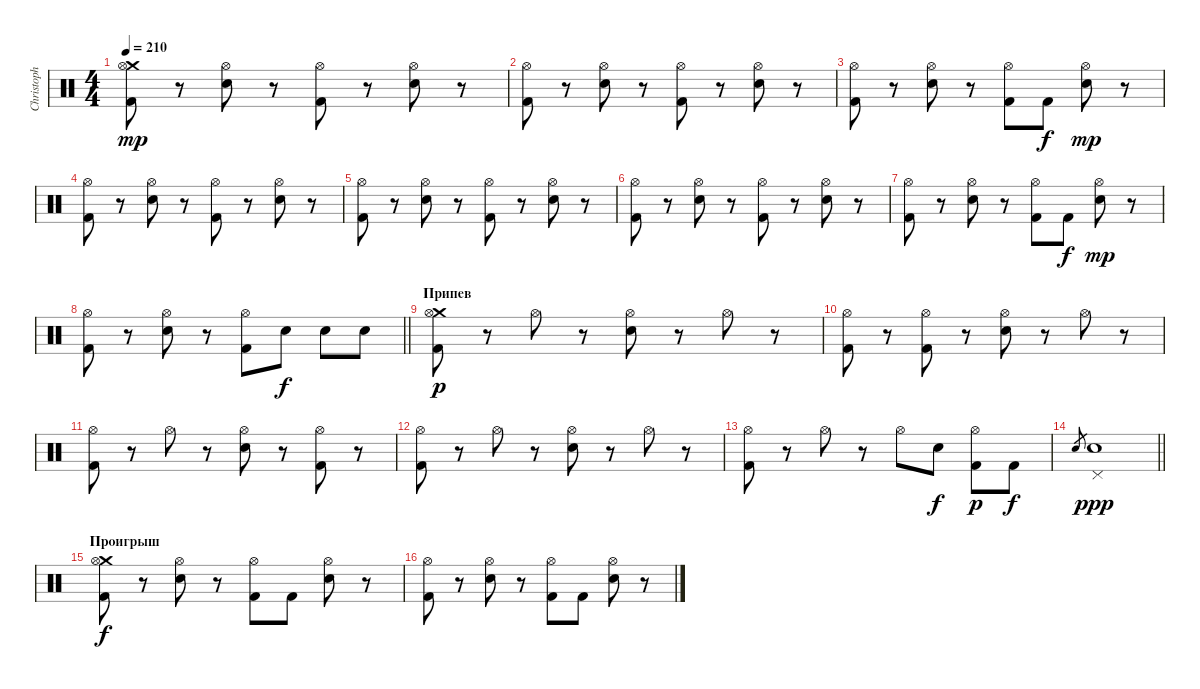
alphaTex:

\track ("Christoph Schneider" "Christoph ") {instrument percussion}
\staff {score}
\articulation defaults
\ts (4 4)
\tempo 210
\clef neutral
\ks c
("Crash medium (hit)" "Kick (hit) 2" "Hi-Hat (open)").8{dy mp} r.8 ("Hi-Hat (open)" "Electric Snare (hit)").8 r.8 ("Hi-Hat (open)" "Kick (hit) 2").8 r.8 ("Hi-Hat (open)" "Electric Snare (hit)").8 r.8 |
("Kick (hit) 2" "Hi-Hat (open)").8 r.8 ("Hi-Hat (open)" "Electric Snare (hit)").8 r.8 ("Hi-Hat (open)" "Kick (hit) 2").8 r.8 ("Hi-Hat (open)" "Electric Snare (hit)").8 r.8 |
("Kick (hit) 2" "Hi-Hat (open)").8 r.8 ("Hi-Hat (open)" "Electric Snare (hit)").8 r.8 ("Hi-Hat (open)" "Kick (hit) 2").8 "Kick (hit) 2".8{dy f} ("Hi-Hat (open)" "Electric Snare (hit)").8{dy mp} r.8 |
("Kick (hit) 2" "Hi-Hat (open)").8 r.8 ("Hi-Hat (open)" "Electric Snare (hit)").8 r.8 ("Hi-Hat (open)" "Kick (hit) 2").8 r.8 ("Hi-Hat (open)" "Electric Snare (hit)").8 r.8 |
("Kick (hit) 2" "Hi-Hat (open)").8 r.8 ("Hi-Hat (open)" "Electric Snare (hit)").8 r.8 ("Hi-Hat (open)" "Kick (hit) 2").8 r.8 ("Hi-Hat (open)" "Electric Snare (hit)").8 r.8 |
("Kick (hit) 2" "Hi-Hat (open)").8 r.8 ("Hi-Hat (open)" "Electric Snare (hit)").8 r.8 ("Hi-Hat (open)" "Kick (hit) 2").8 r.8 ("Hi-Hat (open)" "Electric Snare (hit)").8 r.8 |
("Kick (hit) 2" "Hi-Hat (open)").8 r.8 ("Hi-Hat (open)" "Electric Snare (hit)").8 r.8 ("Hi-Hat (open)" "Kick (hit) 2").8 "Kick (hit) 2".8{dy f} ("Hi-Hat (open)" "Electric Snare (hit)").8{dy mp} r.8 |
\barLineRight lightlight
("Kick (hit) 2" "Hi-Hat (open)").8 r.8 ("Hi-Hat (open)" "Electric Snare (hit)").8 r.8 ("Hi-Hat (open)" "Kick (hit) 2").8 "Electric Snare (hit)".8{dy f} "Electric Snare (hit)".8 "Electric Snare (hit)".8 |
\section ("" "Припев")
("Crash medium (hit)" "Kick (hit) 2" "Hi-Hat (open)").8{dy p} r.8 "Hi-Hat (open)".8 r.8 ("Hi-Hat (open)" "Electric Snare (hit)").8 r.8 "Hi-Hat (open)".8 r.8 |
("Kick (hit) 2" "Hi-Hat (open)").8 r.8 ("Hi-Hat (open)" "Kick (hit) 2").8 r.8 ("Hi-Hat (open)" "Electric Snare (hit)").8 r.8 "Hi-Hat (open)".8 r.8 |
("Kick (hit) 2" "Hi-Hat (open)").8 r.8 "Hi-Hat (open)".8 r.8 ("Hi-Hat (open)" "Electric Snare (hit)").8 r.8 ("Hi-Hat (open)" "Kick (hit) 2").8 r.8 |
("Kick (hit) 2" "Hi-Hat (open)").8 r.8 "Hi-Hat (open)".8 r.8 ("Hi-Hat (open)" "Electric Snare (hit)").8 r.8 "Hi-Hat (open)".8 r.8 |
("Hi-Hat (open)" "Kick (hit) 2").8 r.8 "Hi-Hat (open)".8 r.8 "Hi-Hat (open)".8 "Electric Snare (hit)".8{dy f} ("Hi-Hat (open)" "Kick (hit) 2").8{dy p} "Kick (hit) 2".8{dy f} |
\barLineRight lightlight "Electric Snare (hit)".8{gr}
("Pedal Hi-Hat (hit)" "Electric Snare (hit)").1{dy ppp} |
\section ("" "Проигрыш")
("Crash medium (hit)" "Kick (hit) 2" "Hi-Hat (open)").8{dy f} r.8 ("Hi-Hat (open)" "Electric Snare (hit)").8 r.8 ("Hi-Hat (open)" "Kick (hit) 2").8 "Kick (hit) 2".8 ("Hi-Hat (open)" "Electric Snare (hit)").8 r.8 |
("Hi-Hat (open)" "Kick (hit) 2").8 r.8 ("Hi-Hat (open)" "Electric Snare (hit)").8 r.8 ("Hi-Hat (open)" "Kick (hit) 2").8 "Kick (hit) 2".8 ("Hi-Hat (open)" "Electric Snare (hit)").8 r.8
